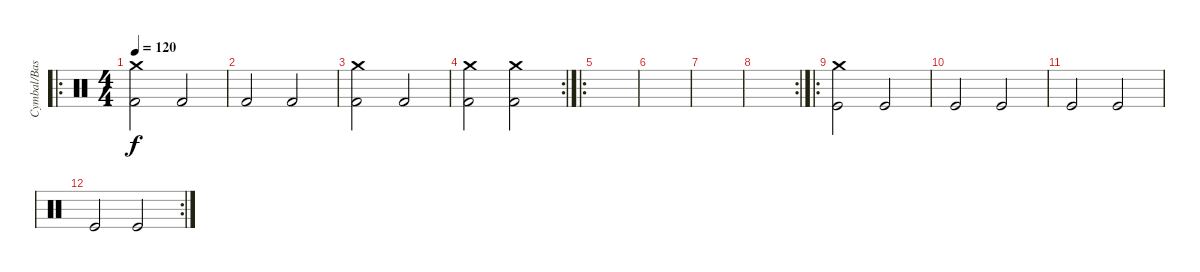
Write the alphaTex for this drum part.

\track ("Cymbal/Bass" "Cymbal/Bas") {instrument percussion}
\staff {score}
\articulation defaults
\ro
\ts (4 4)
\tempo 120
\clef neutral
\ks c
("Crash medium (hit)" "Kick (hit) 2").2{dy f} "Kick (hit) 2".2 |
"Kick (hit) 2".2 "Kick (hit) 2".2 |
("Crash medium (hit)" "Kick (hit) 2").2 "Kick (hit) 2".2 |
\rc 2
("Crash medium (hit)" "Kick (hit) 2").2 ("Crash medium (hit)" "Kick (hit) 2").2 |
\ro
|
|
|
\rc 2
|
\ro
("Crash medium (hit)" "Kick (hit)").2 "Kick (hit)".2 |
"Kick (hit)".2 "Kick (hit)".2 |
"Kick (hit)".2 "Kick (hit)".2 |
\rc 2 "Kick (hit)".2 "Kick (hit)".2
